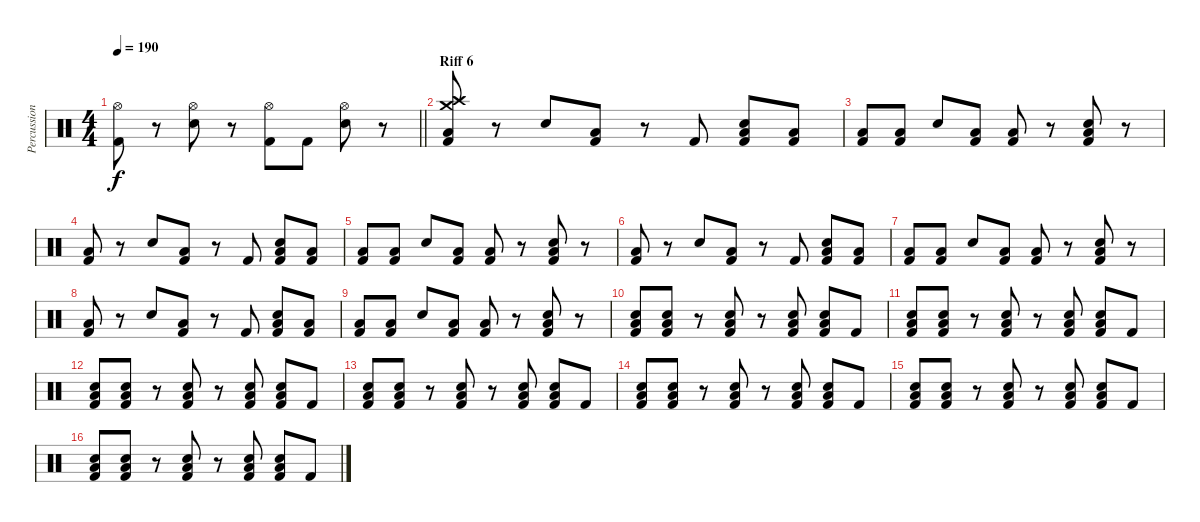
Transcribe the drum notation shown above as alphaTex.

\track ("Percussion" "Percussion") {instrument percussion}
\staff {score}
\articulation defaults
\ts (4 4)
\tempo 190
\clef neutral
\barLineRight lightlight
\ks c
("Hi-Hat (open)" "Kick (hit) 2").8{dy f} r.8 ("Hi-Hat (open)" "Electric Snare (hit)").8 r.8 ("Hi-Hat (open)" "Kick (hit) 2").8 "Kick (hit) 2".8 ("Hi-Hat (open)" "Electric Snare (hit)").8 r.8 |
\section ("" "Riff 6")
("Crash medium (hit)" "Crash high (hit)" "Low Floor Tom (hit)" "Kick (hit) 2").8 r.8 "Electric Snare (hit)".8 ("Low Floor Tom (hit)" "Kick (hit) 2").8 r.8 "Kick (hit) 2".8 ("Electric Snare (hit)" "Low Floor Tom (hit)" "Kick (hit) 2").8 ("Low Floor Tom (hit)" "Kick (hit) 2").8 |
("Low Floor Tom (hit)" "Kick (hit) 2").8 ("Low Floor Tom (hit)" "Kick (hit) 2").8 "Electric Snare (hit)".8 ("Low Floor Tom (hit)" "Kick (hit) 2").8 ("Low Floor Tom (hit)" "Kick (hit) 2").8 r.8 ("Electric Snare (hit)" "Low Floor Tom (hit)" "Kick (hit) 2").8 r.8 |
("Low Floor Tom (hit)" "Kick (hit) 2").8 r.8 "Electric Snare (hit)".8 ("Low Floor Tom (hit)" "Kick (hit) 2").8 r.8 "Kick (hit) 2".8 ("Electric Snare (hit)" "Low Floor Tom (hit)" "Kick (hit) 2").8 ("Low Floor Tom (hit)" "Kick (hit) 2").8 |
("Low Floor Tom (hit)" "Kick (hit) 2").8 ("Low Floor Tom (hit)" "Kick (hit) 2").8 "Electric Snare (hit)".8 ("Low Floor Tom (hit)" "Kick (hit) 2").8 ("Low Floor Tom (hit)" "Kick (hit) 2").8 r.8 ("Electric Snare (hit)" "Low Floor Tom (hit)" "Kick (hit) 2").8 r.8 |
("Low Floor Tom (hit)" "Kick (hit) 2").8 r.8 "Electric Snare (hit)".8 ("Low Floor Tom (hit)" "Kick (hit) 2").8 r.8 "Kick (hit) 2".8 ("Electric Snare (hit)" "Low Floor Tom (hit)" "Kick (hit) 2").8 ("Low Floor Tom (hit)" "Kick (hit) 2").8 |
("Low Floor Tom (hit)" "Kick (hit) 2").8 ("Low Floor Tom (hit)" "Kick (hit) 2").8 "Electric Snare (hit)".8 ("Low Floor Tom (hit)" "Kick (hit) 2").8 ("Low Floor Tom (hit)" "Kick (hit) 2").8 r.8 ("Electric Snare (hit)" "Low Floor Tom (hit)" "Kick (hit) 2").8 r.8 |
("Low Floor Tom (hit)" "Kick (hit) 2").8 r.8 "Electric Snare (hit)".8 ("Low Floor Tom (hit)" "Kick (hit) 2").8 r.8 "Kick (hit) 2".8 ("Electric Snare (hit)" "Low Floor Tom (hit)" "Kick (hit) 2").8 ("Low Floor Tom (hit)" "Kick (hit) 2").8 |
("Low Floor Tom (hit)" "Kick (hit) 2").8 ("Low Floor Tom (hit)" "Kick (hit) 2").8 "Electric Snare (hit)".8 ("Low Floor Tom (hit)" "Kick (hit) 2").8 ("Low Floor Tom (hit)" "Kick (hit) 2").8 r.8 ("Electric Snare (hit)" "Low Floor Tom (hit)" "Kick (hit) 2").8 r.8 |
("Electric Snare (hit)" "Low Floor Tom (hit)" "Kick (hit) 2").8 ("Electric Snare (hit)" "Low Floor Tom (hit)" "Kick (hit) 2").8 r.8 ("Electric Snare (hit)" "Low Floor Tom (hit)" "Kick (hit) 2").8 r.8 ("Electric Snare (hit)" "Low Floor Tom (hit)" "Kick (hit) 2").8 ("Electric Snare (hit)" "Low Floor Tom (hit)" "Kick (hit) 2").8 "Kick (hit) 2".8 |
("Electric Snare (hit)" "Low Floor Tom (hit)" "Kick (hit) 2").8 ("Electric Snare (hit)" "Low Floor Tom (hit)" "Kick (hit) 2").8 r.8 ("Electric Snare (hit)" "Low Floor Tom (hit)" "Kick (hit) 2").8 r.8 ("Electric Snare (hit)" "Low Floor Tom (hit)" "Kick (hit) 2").8 ("Electric Snare (hit)" "Low Floor Tom (hit)" "Kick (hit) 2").8 "Kick (hit) 2".8 |
("Electric Snare (hit)" "Low Floor Tom (hit)" "Kick (hit) 2").8 ("Electric Snare (hit)" "Low Floor Tom (hit)" "Kick (hit) 2").8 r.8 ("Electric Snare (hit)" "Low Floor Tom (hit)" "Kick (hit) 2").8 r.8 ("Electric Snare (hit)" "Low Floor Tom (hit)" "Kick (hit) 2").8 ("Electric Snare (hit)" "Low Floor Tom (hit)" "Kick (hit) 2").8 "Kick (hit) 2".8 |
("Electric Snare (hit)" "Low Floor Tom (hit)" "Kick (hit) 2").8 ("Electric Snare (hit)" "Low Floor Tom (hit)" "Kick (hit) 2").8 r.8 ("Electric Snare (hit)" "Low Floor Tom (hit)" "Kick (hit) 2").8 r.8 ("Electric Snare (hit)" "Low Floor Tom (hit)" "Kick (hit) 2").8 ("Electric Snare (hit)" "Low Floor Tom (hit)" "Kick (hit) 2").8 "Kick (hit) 2".8 |
("Electric Snare (hit)" "Low Floor Tom (hit)" "Kick (hit) 2").8 ("Electric Snare (hit)" "Low Floor Tom (hit)" "Kick (hit) 2").8 r.8 ("Electric Snare (hit)" "Low Floor Tom (hit)" "Kick (hit) 2").8 r.8 ("Electric Snare (hit)" "Low Floor Tom (hit)" "Kick (hit) 2").8 ("Electric Snare (hit)" "Low Floor Tom (hit)" "Kick (hit) 2").8 "Kick (hit) 2".8 |
("Electric Snare (hit)" "Low Floor Tom (hit)" "Kick (hit) 2").8 ("Electric Snare (hit)" "Low Floor Tom (hit)" "Kick (hit) 2").8 r.8 ("Electric Snare (hit)" "Low Floor Tom (hit)" "Kick (hit) 2").8 r.8 ("Electric Snare (hit)" "Low Floor Tom (hit)" "Kick (hit) 2").8 ("Electric Snare (hit)" "Low Floor Tom (hit)" "Kick (hit) 2").8 "Kick (hit) 2".8 |
("Electric Snare (hit)" "Low Floor Tom (hit)" "Kick (hit) 2").8 ("Electric Snare (hit)" "Low Floor Tom (hit)" "Kick (hit) 2").8 r.8 ("Electric Snare (hit)" "Low Floor Tom (hit)" "Kick (hit) 2").8 r.8 ("Electric Snare (hit)" "Low Floor Tom (hit)" "Kick (hit) 2").8 ("Electric Snare (hit)" "Low Floor Tom (hit)" "Kick (hit) 2").8 "Kick (hit) 2".8
